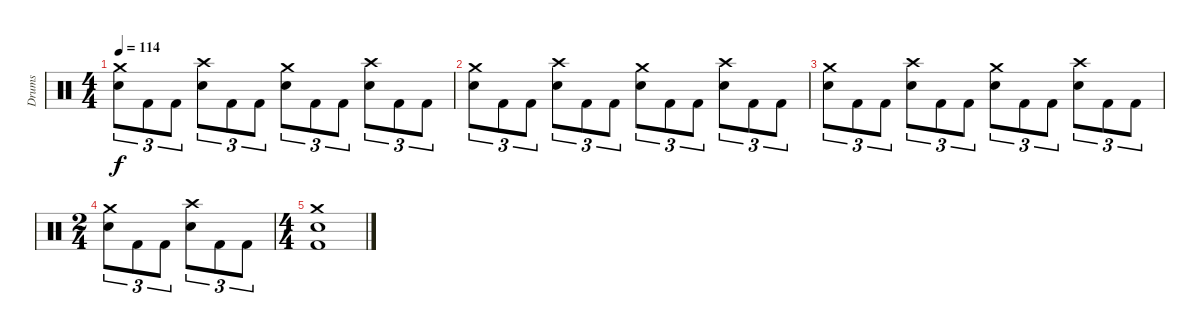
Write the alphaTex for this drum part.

\track ("Drums" "Drums") {instrument percussion}
\staff {score}
\articulation defaults
\ts (4 4)
\tempo 114
\clef neutral
\ks aminor
("Crash medium (hit)" "Snare (hit) 2").8{tu (3 2) dy f} "Kick (hit) 2".8{tu (3 2)} "Kick (hit) 2".8{tu (3 2)} ("Crash high (hit)" "Snare (hit) 2").8{tu (3 2)} "Kick (hit) 2".8{tu (3 2)} "Kick (hit) 2".8{tu (3 2)} ("Crash medium (hit)" "Snare (hit) 2").8{tu (3 2)} "Kick (hit) 2".8{tu (3 2)} "Kick (hit) 2".8{tu (3 2)} ("Crash high (hit)" "Snare (hit) 2").8{tu (3 2)} "Kick (hit) 2".8{tu (3 2)} "Kick (hit) 2".8{tu (3 2)} |
("Crash medium (hit)" "Snare (hit) 2").8{tu (3 2)} "Kick (hit) 2".8{tu (3 2)} "Kick (hit) 2".8{tu (3 2)} ("Crash high (hit)" "Snare (hit) 2").8{tu (3 2)} "Kick (hit) 2".8{tu (3 2)} "Kick (hit) 2".8{tu (3 2)} ("Crash medium (hit)" "Snare (hit) 2").8{tu (3 2)} "Kick (hit) 2".8{tu (3 2)} "Kick (hit) 2".8{tu (3 2)} ("Crash high (hit)" "Snare (hit) 2").8{tu (3 2)} "Kick (hit) 2".8{tu (3 2)} "Kick (hit) 2".8{tu (3 2)} |
("Crash medium (hit)" "Snare (hit) 2").8{tu (3 2)} "Kick (hit) 2".8{tu (3 2)} "Kick (hit) 2".8{tu (3 2)} ("Crash high (hit)" "Snare (hit) 2").8{tu (3 2)} "Kick (hit) 2".8{tu (3 2)} "Kick (hit) 2".8{tu (3 2)} ("Crash medium (hit)" "Snare (hit) 2").8{tu (3 2)} "Kick (hit) 2".8{tu (3 2)} "Kick (hit) 2".8{tu (3 2)} ("Crash high (hit)" "Snare (hit) 2").8{tu (3 2)} "Kick (hit) 2".8{tu (3 2)} "Kick (hit) 2".8{tu (3 2)} |
\ts (2 4)
("Crash medium (hit)" "Snare (hit) 2").8{tu (3 2)} "Kick (hit) 2".8{tu (3 2)} "Kick (hit) 2".8{tu (3 2)} ("Crash high (hit)" "Snare (hit) 2").8{tu (3 2)} "Kick (hit) 2".8{tu (3 2)} "Kick (hit) 2".8{tu (3 2)} |
\ts (4 4)
("Crash medium (hit)" "Snare (hit) 2" "Kick (hit) 2").1
